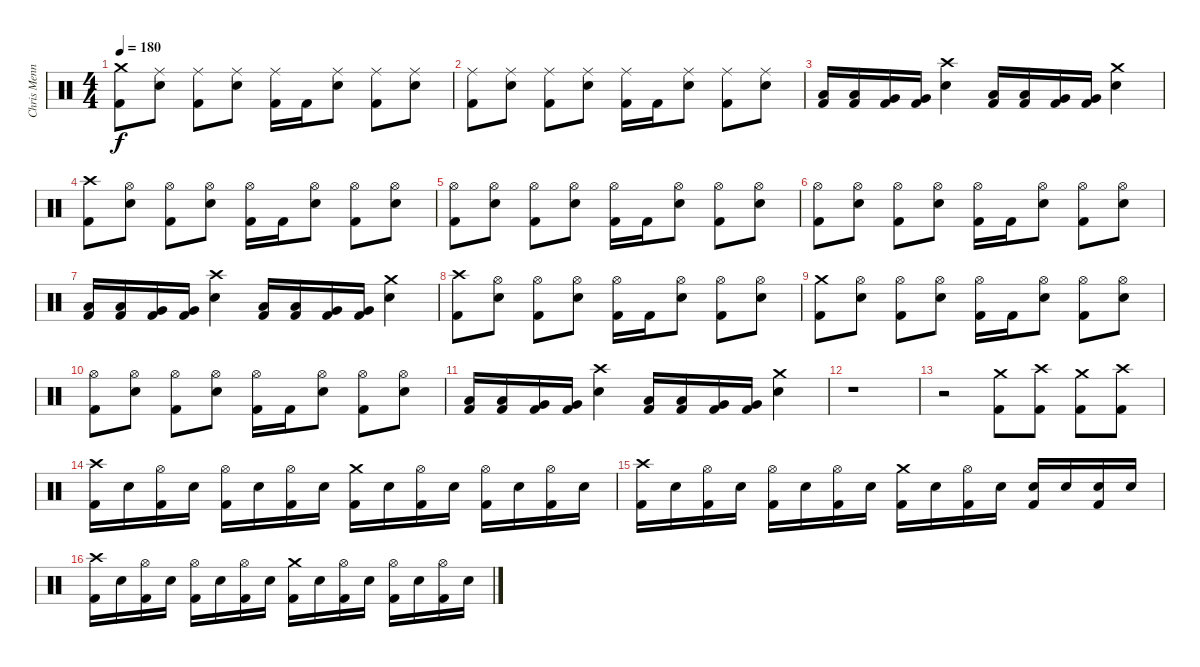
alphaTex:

\track ("Chris Menning" "Chris Menn") {instrument percussion}
\staff {score}
\articulation defaults
\ts (4 4)
\tempo 180
\clef neutral
\ks c
("Crash medium (hit)" "Kick (hit) 2").8{dy f} ("Ride (middle)" "Electric Snare (hit)").8 ("Ride (middle)" "Kick (hit) 2").8 ("Ride (middle)" "Electric Snare (hit)").8 ("Ride (middle)" "Kick (hit) 2").16 "Kick (hit) 2".16 ("Ride (middle)" "Electric Snare (hit)").8 ("Ride (middle)" "Kick (hit) 2").8 ("Ride (middle)" "Electric Snare (hit)").8 |
("Ride (middle)" "Kick (hit) 2").8 ("Ride (middle)" "Electric Snare (hit)").8 ("Ride (middle)" "Kick (hit) 2").8 ("Ride (middle)" "Electric Snare (hit)").8 ("Ride (middle)" "Kick (hit) 2").16 "Kick (hit) 2".16 ("Ride (middle)" "Electric Snare (hit)").8 ("Ride (middle)" "Kick (hit) 2").8 ("Ride (middle)" "Electric Snare (hit)").8 |
("Low Tom (hit)" "Kick (hit) 2").16 ("Low Tom (hit)" "Kick (hit) 2").16 ("Very Low Tom (hit)" "Kick (hit) 2").16 ("Very Low Tom (hit)" "Kick (hit) 2").16 ("Crash high (hit)" "Electric Snare (hit)").4 ("Low Tom (hit)" "Kick (hit) 2").16 ("Low Tom (hit)" "Kick (hit) 2").16 ("Very Low Tom (hit)" "Kick (hit) 2").16 ("Very Low Tom (hit)" "Kick (hit) 2").16 ("Crash medium (hit)" "Electric Snare (hit)").4 |
("Crash high (hit)" "Kick (hit) 2").8 ("Hi-Hat (open)" "Electric Snare (hit)").8 ("Hi-Hat (open)" "Kick (hit) 2").8 ("Hi-Hat (open)" "Electric Snare (hit)").8 ("Hi-Hat (open)" "Kick (hit) 2").16 "Kick (hit) 2".16 ("Hi-Hat (open)" "Electric Snare (hit)").8 ("Hi-Hat (open)" "Kick (hit) 2").8 ("Hi-Hat (open)" "Electric Snare (hit)").8 |
("Hi-Hat (open)" "Kick (hit) 2").8 ("Hi-Hat (open)" "Electric Snare (hit)").8 ("Hi-Hat (open)" "Kick (hit) 2").8 ("Hi-Hat (open)" "Electric Snare (hit)").8 ("Hi-Hat (open)" "Kick (hit) 2").16 "Kick (hit) 2".16 ("Hi-Hat (open)" "Electric Snare (hit)").8 ("Hi-Hat (open)" "Kick (hit) 2").8 ("Hi-Hat (open)" "Electric Snare (hit)").8 |
("Hi-Hat (open)" "Kick (hit) 2").8 ("Hi-Hat (open)" "Electric Snare (hit)").8 ("Hi-Hat (open)" "Kick (hit) 2").8 ("Hi-Hat (open)" "Electric Snare (hit)").8 ("Hi-Hat (open)" "Kick (hit) 2").16 "Kick (hit) 2".16 ("Hi-Hat (open)" "Electric Snare (hit)").8 ("Hi-Hat (open)" "Kick (hit) 2").8 ("Hi-Hat (open)" "Electric Snare (hit)").8 |
("Low Tom (hit)" "Kick (hit) 2").16 ("Low Tom (hit)" "Kick (hit) 2").16 ("Very Low Tom (hit)" "Kick (hit) 2").16 ("Very Low Tom (hit)" "Kick (hit) 2").16 ("Crash high (hit)" "Electric Snare (hit)").4 ("Low Tom (hit)" "Kick (hit) 2").16 ("Low Tom (hit)" "Kick (hit) 2").16 ("Very Low Tom (hit)" "Kick (hit) 2").16 ("Very Low Tom (hit)" "Kick (hit) 2").16 ("Crash medium (hit)" "Electric Snare (hit)").4 |
("Crash high (hit)" "Kick (hit) 2").8 ("Hi-Hat (open)" "Electric Snare (hit)").8 ("Hi-Hat (open)" "Kick (hit) 2").8 ("Hi-Hat (open)" "Electric Snare (hit)").8 ("Hi-Hat (open)" "Kick (hit) 2").16 "Kick (hit) 2".16 ("Hi-Hat (open)" "Electric Snare (hit)").8 ("Hi-Hat (open)" "Kick (hit) 2").8 ("Hi-Hat (open)" "Electric Snare (hit)").8 |
("Crash medium (hit)" "Kick (hit) 2").8 ("Hi-Hat (open)" "Electric Snare (hit)").8 ("Hi-Hat (open)" "Kick (hit) 2").8 ("Hi-Hat (open)" "Electric Snare (hit)").8 ("Hi-Hat (open)" "Kick (hit) 2").16 "Kick (hit) 2".16 ("Hi-Hat (open)" "Electric Snare (hit)").8 ("Hi-Hat (open)" "Kick (hit) 2").8 ("Hi-Hat (open)" "Electric Snare (hit)").8 |
("Hi-Hat (open)" "Kick (hit) 2").8 ("Hi-Hat (open)" "Electric Snare (hit)").8 ("Hi-Hat (open)" "Kick (hit) 2").8 ("Hi-Hat (open)" "Electric Snare (hit)").8 ("Hi-Hat (open)" "Kick (hit) 2").16 "Kick (hit) 2".16 ("Hi-Hat (open)" "Electric Snare (hit)").8 ("Hi-Hat (open)" "Kick (hit) 2").8 ("Hi-Hat (open)" "Electric Snare (hit)").8 |
("Low Tom (hit)" "Kick (hit) 2").16 ("Low Tom (hit)" "Kick (hit) 2").16 ("Very Low Tom (hit)" "Kick (hit) 2").16 ("Very Low Tom (hit)" "Kick (hit) 2").16 ("Crash high (hit)" "Electric Snare (hit)").4 ("Low Tom (hit)" "Kick (hit) 2").16 ("Low Tom (hit)" "Kick (hit) 2").16 ("Very Low Tom (hit)" "Kick (hit) 2").16 ("Very Low Tom (hit)" "Kick (hit) 2").16 ("Crash medium (hit)" "Electric Snare (hit)").4 |
r.1 |
r.2 ("Crash medium (hit)" "Kick (hit) 2").8 ("Crash high (hit)" "Kick (hit) 2").8 ("Crash medium (hit)" "Kick (hit) 2").8 ("Crash high (hit)" "Kick (hit) 2").8 |
("Crash high (hit)" "Kick (hit) 2").16 "Electric Snare (hit)".16 ("Hi-Hat (open)" "Kick (hit) 2").16 "Electric Snare (hit)".16 ("Hi-Hat (open)" "Kick (hit) 2").16 "Electric Snare (hit)".16 ("Hi-Hat (open)" "Kick (hit) 2").16 "Electric Snare (hit)".16 ("Crash medium (hit)" "Kick (hit) 2").16 "Electric Snare (hit)".16 ("Hi-Hat (open)" "Kick (hit) 2").16 "Electric Snare (hit)".16 ("Hi-Hat (open)" "Kick (hit) 2").16 "Electric Snare (hit)".16 ("Hi-Hat (open)" "Kick (hit) 2").16 "Electric Snare (hit)".16 |
("Crash high (hit)" "Kick (hit) 2").16 "Electric Snare (hit)".16 ("Hi-Hat (open)" "Kick (hit) 2").16 "Electric Snare (hit)".16 ("Hi-Hat (open)" "Kick (hit) 2").16 "Electric Snare (hit)".16 ("Hi-Hat (open)" "Kick (hit) 2").16 "Electric Snare (hit)".16 ("Crash medium (hit)" "Kick (hit) 2").16 "Electric Snare (hit)".16 ("Hi-Hat (open)" "Kick (hit) 2").16 "Electric Snare (hit)".16 ("Electric Snare (hit)" "Kick (hit) 2").16 "Electric Snare (hit)".16 ("Electric Snare (hit)" "Kick (hit) 2").16 "Electric Snare (hit)".16 |
("Crash high (hit)" "Kick (hit) 2").16 "Electric Snare (hit)".16 ("Hi-Hat (open)" "Kick (hit) 2").16 "Electric Snare (hit)".16 ("Hi-Hat (open)" "Kick (hit) 2").16 "Electric Snare (hit)".16 ("Hi-Hat (open)" "Kick (hit) 2").16 "Electric Snare (hit)".16 ("Crash medium (hit)" "Kick (hit) 2").16 "Electric Snare (hit)".16 ("Hi-Hat (open)" "Kick (hit) 2").16 "Electric Snare (hit)".16 ("Hi-Hat (open)" "Kick (hit) 2").16 "Electric Snare (hit)".16 ("Hi-Hat (open)" "Kick (hit) 2").16 "Electric Snare (hit)".16
